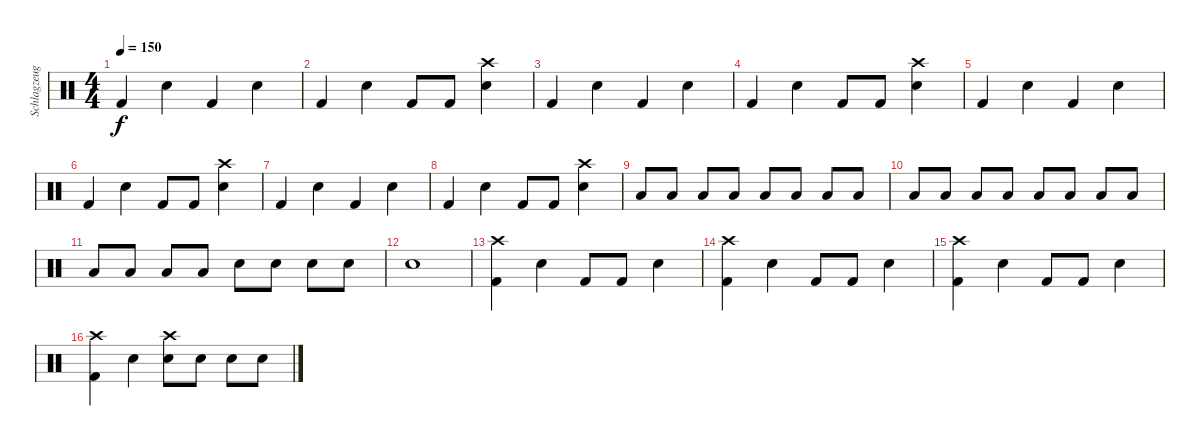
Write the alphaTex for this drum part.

\track ("Schlagzeug" "Schlagzeug") {instrument percussion}
\staff {score}
\articulation defaults
\ts (4 4)
\tempo 150
\clef neutral
\ks c "Kick (hit) 2".4{dy f} "Snare (hit) 2".4 "Kick (hit) 2".4 "Snare (hit) 2".4
|
"Kick (hit) 2".4 "Snare (hit) 2".4 "Kick (hit) 2".8 "Kick (hit) 2".8 ("Crash high (hit)" "Snare (hit) 2").4 |
"Kick (hit) 2".4 "Snare (hit) 2".4 "Kick (hit) 2".4 "Snare (hit) 2".4 |
"Kick (hit) 2".4 "Snare (hit) 2".4 "Kick (hit) 2".8 "Kick (hit) 2".8 ("Crash high (hit)" "Snare (hit) 2").4 |
"Kick (hit) 2".4 "Snare (hit) 2".4 "Kick (hit) 2".4 "Snare (hit) 2".4 |
"Kick (hit) 2".4 "Snare (hit) 2".4 "Kick (hit) 2".8 "Kick (hit) 2".8 ("Crash high (hit)" "Snare (hit) 2").4 |
"Kick (hit) 2".4 "Snare (hit) 2".4 "Kick (hit) 2".4 "Snare (hit) 2".4 |
"Kick (hit) 2".4 "Snare (hit) 2".4 "Kick (hit) 2".8 "Kick (hit) 2".8 ("Crash high (hit)" "Snare (hit) 2").4 |
"Low Tom (hit)".8 "Low Tom (hit)".8 "Low Tom (hit)".8 "Low Tom (hit)".8 "Low Tom (hit)".8 "Low Tom (hit)".8 "Low Tom (hit)".8 "Low Tom (hit)".8 |
"Low Tom (hit)".8 "Low Tom (hit)".8 "Low Tom (hit)".8 "Low Tom (hit)".8 "Low Tom (hit)".8 "Low Tom (hit)".8 "Low Tom (hit)".8 "Low Tom (hit)".8 |
"Low Tom (hit)".8 "Low Tom (hit)".8 "Low Tom (hit)".8 "Low Tom (hit)".8 "Snare (hit) 2".8 "Snare (hit) 2".8 "Snare (hit) 2".8 "Snare (hit) 2".8 |
"Snare (hit) 2".1 |
("Crash high (hit)" "Kick (hit) 2").4 "Snare (hit) 2".4 "Kick (hit) 2".8 "Kick (hit) 2".8 "Snare (hit) 2".4 |
("Crash high (hit)" "Kick (hit) 2").4 "Snare (hit) 2".4 "Kick (hit) 2".8 "Kick (hit) 2".8 "Snare (hit) 2".4 |
("Crash high (hit)" "Kick (hit) 2").4 "Snare (hit) 2".4 "Kick (hit) 2".8 "Kick (hit) 2".8 "Snare (hit) 2".4 |
("Crash high (hit)" "Kick (hit) 2").4 "Snare (hit) 2".4 ("Crash high (hit)" "Snare (hit) 2").8 "Snare (hit) 2".8 "Snare (hit) 2".8 "Snare (hit) 2".8
